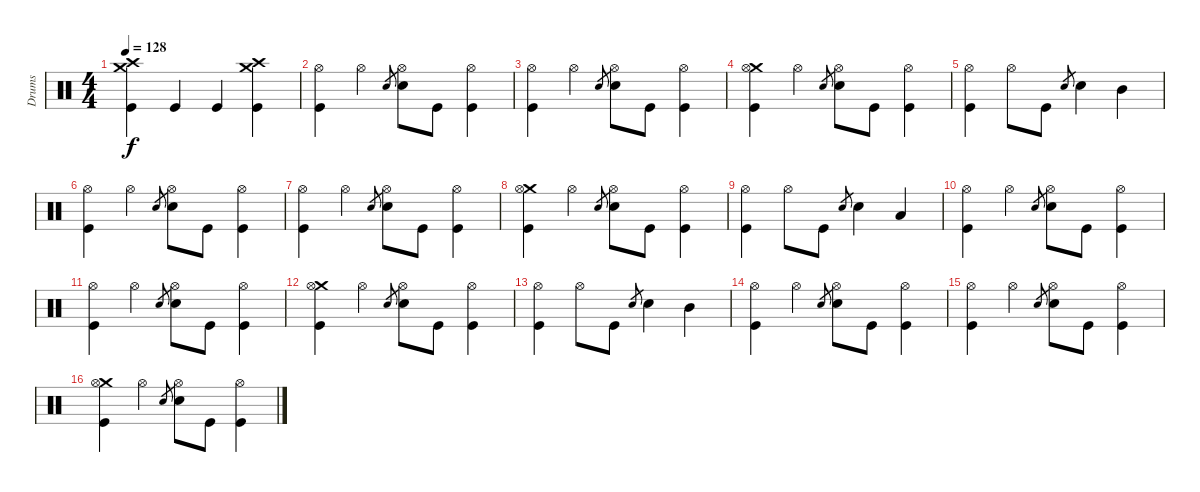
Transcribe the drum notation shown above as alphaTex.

\track ("Drums" "Drums") {instrument percussion}
\staff {score}
\articulation defaults
\ts (4 4)
\tempo 128
\clef neutral
\ks c
("Crash medium (hit)" "Crash high (hit)" "Kick (hit)").4{dy f} "Kick (hit)".4 "Kick (hit)".4 ("Crash medium (hit)" "Crash high (hit)" "Kick (hit)").4 |
("Hi-Hat (open)" "Kick (hit)").4 "Hi-Hat (open)".4 "Snare (hit) 2".8{gr} ("Hi-Hat (open)" "Snare (hit) 2").8 "Kick (hit)".8 ("Hi-Hat (open)" "Kick (hit)").4 |
("Hi-Hat (open)" "Kick (hit)").4 "Hi-Hat (open)".4 "Snare (hit) 2".8{gr} ("Hi-Hat (open)" "Snare (hit) 2").8 "Kick (hit)".8 ("Hi-Hat (open)" "Kick (hit)").4 |
("Crash medium (hit)" "Hi-Hat (open)" "Kick (hit)").4 "Hi-Hat (open)".4 "Snare (hit) 2".8{gr} ("Hi-Hat (open)" "Snare (hit) 2").8 "Kick (hit)".8 ("Hi-Hat (open)" "Kick (hit)").4 |
("Hi-Hat (open)" "Kick (hit)").4 "Hi-Hat (open)".8 "Kick (hit)".8 "Snare (hit) 2".8{gr} "Snare (hit) 2".4 "Mid Tom (hit)".4 |
("Hi-Hat (open)" "Kick (hit)").4 "Hi-Hat (open)".4 "Snare (hit) 2".8{gr} ("Hi-Hat (open)" "Snare (hit) 2").8 "Kick (hit)".8 ("Hi-Hat (open)" "Kick (hit)").4 |
("Hi-Hat (open)" "Kick (hit)").4 "Hi-Hat (open)".4 "Snare (hit) 2".8{gr} ("Hi-Hat (open)" "Snare (hit) 2").8 "Kick (hit)".8 ("Hi-Hat (open)" "Kick (hit)").4 |
("Crash medium (hit)" "Hi-Hat (open)" "Kick (hit)").4 "Hi-Hat (open)".4 "Snare (hit) 2".8{gr} ("Hi-Hat (open)" "Snare (hit) 2").8 "Kick (hit)".8 ("Hi-Hat (open)" "Kick (hit)").4 |
("Hi-Hat (open)" "Kick (hit)").4 "Hi-Hat (open)".8 "Kick (hit)".8 "Snare (hit) 2".8{gr} "Snare (hit) 2".4 "Low Tom (hit)".4 |
("Hi-Hat (open)" "Kick (hit)").4 "Hi-Hat (open)".4 "Snare (hit) 2".8{gr} ("Hi-Hat (open)" "Snare (hit) 2").8 "Kick (hit)".8 ("Hi-Hat (open)" "Kick (hit)").4 |
("Hi-Hat (open)" "Kick (hit)").4 "Hi-Hat (open)".4 "Snare (hit) 2".8{gr} ("Hi-Hat (open)" "Snare (hit) 2").8 "Kick (hit)".8 ("Hi-Hat (open)" "Kick (hit)").4 |
("Crash medium (hit)" "Hi-Hat (open)" "Kick (hit)").4 "Hi-Hat (open)".4 "Snare (hit) 2".8{gr} ("Hi-Hat (open)" "Snare (hit) 2").8 "Kick (hit)".8 ("Hi-Hat (open)" "Kick (hit)").4 |
("Hi-Hat (open)" "Kick (hit)").4 "Hi-Hat (open)".8 "Kick (hit)".8 "Snare (hit) 2".8{gr} "Snare (hit) 2".4 "Mid Tom (hit)".4 |
("Hi-Hat (open)" "Kick (hit)").4 "Hi-Hat (open)".4 "Snare (hit) 2".8{gr} ("Hi-Hat (open)" "Snare (hit) 2").8 "Kick (hit)".8 ("Hi-Hat (open)" "Kick (hit)").4 |
("Hi-Hat (open)" "Kick (hit)").4 "Hi-Hat (open)".4 "Snare (hit) 2".8{gr} ("Hi-Hat (open)" "Snare (hit) 2").8 "Kick (hit)".8 ("Hi-Hat (open)" "Kick (hit)").4 |
("Crash medium (hit)" "Hi-Hat (open)" "Kick (hit)").4 "Hi-Hat (open)".4 "Snare (hit) 2".8{gr} ("Hi-Hat (open)" "Snare (hit) 2").8 "Kick (hit)".8 ("Hi-Hat (open)" "Kick (hit)").4
